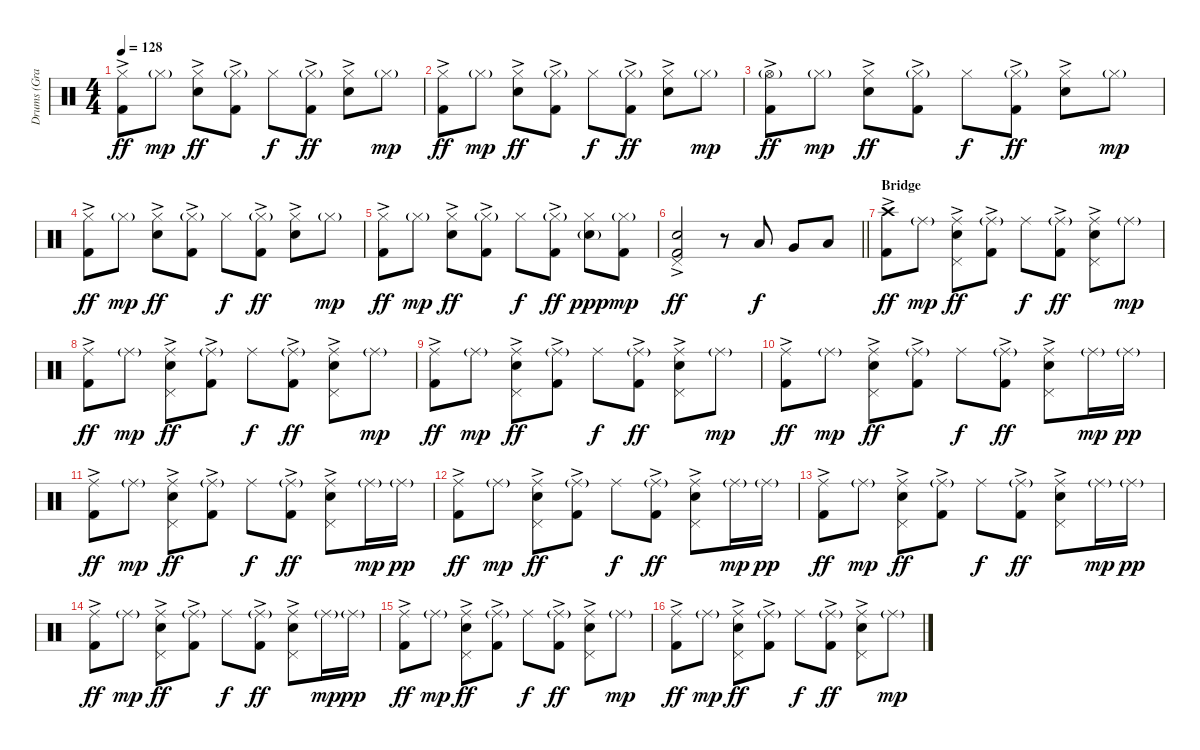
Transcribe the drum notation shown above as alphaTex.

\track ("Drums (Graham)" "Drums (Gra") {instrument percussion}
\staff {score}
\articulation defaults
\ts (4 4)
\tempo 128
\clef neutral
\ks c
("Hi-Hat (closed)" "Kick (hit) 2"{ac}).8{dy ff} "Hi-Hat (closed)"{g}.8{dy mp} ("Hi-Hat (closed)" "Snare (hit) 2"{ac}).8{dy ff} ("Hi-Hat (closed)"{g} "Kick (hit) 2"{ac}).8 "Hi-Hat (closed)".8{dy f} ("Hi-Hat (closed)"{g} "Kick (hit) 2"{ac}).8{dy ff} ("Hi-Hat (closed)" "Snare (hit) 2"{ac}).8 "Hi-Hat (closed)"{g}.8{dy mp} |
("Hi-Hat (closed)" "Kick (hit) 2"{ac}).8{dy ff} "Hi-Hat (closed)"{g}.8{dy mp} ("Hi-Hat (closed)" "Snare (hit) 2"{ac}).8{dy ff} ("Hi-Hat (closed)"{g} "Kick (hit) 2"{ac}).8 "Hi-Hat (closed)".8{dy f} ("Hi-Hat (closed)"{g} "Kick (hit) 2"{ac}).8{dy ff} ("Hi-Hat (closed)" "Snare (hit) 2"{ac}).8 "Hi-Hat (closed)"{g}.8{dy mp} |
("Hi-Hat (open)"{g} "Kick (hit) 2"{ac}).8{dy ff} "Hi-Hat (closed)"{g}.8{dy mp} ("Hi-Hat (closed)" "Snare (hit) 2"{ac}).8{dy ff} ("Hi-Hat (closed)"{g} "Kick (hit) 2"{ac}).8 "Hi-Hat (closed)".8{dy f} ("Hi-Hat (closed)"{g} "Kick (hit) 2"{ac}).8{dy ff} ("Hi-Hat (closed)" "Snare (hit) 2"{ac}).8 "Hi-Hat (closed)"{g}.8{dy mp} |
("Hi-Hat (closed)" "Kick (hit) 2"{ac}).8{dy ff} "Hi-Hat (closed)"{g}.8{dy mp} ("Hi-Hat (closed)" "Snare (hit) 2"{ac}).8{dy ff} ("Hi-Hat (closed)"{g} "Kick (hit) 2"{ac}).8 "Hi-Hat (closed)".8{dy f} ("Hi-Hat (closed)"{g} "Kick (hit) 2"{ac}).8{dy ff} ("Hi-Hat (closed)" "Snare (hit) 2"{ac}).8 "Hi-Hat (closed)"{g}.8{dy mp} |
("Hi-Hat (closed)" "Kick (hit) 2"{ac}).8{dy ff} "Hi-Hat (closed)"{g}.8{dy mp} ("Hi-Hat (closed)" "Snare (hit) 2"{ac}).8{dy ff} ("Hi-Hat (closed)"{g} "Kick (hit) 2"{ac}).8 "Hi-Hat (closed)".8{dy f} ("Hi-Hat (closed)"{g} "Kick (hit) 2"{ac}).8{dy ff} ("Hi-Hat (closed)" "Snare (hit) 2"{g}).8{dy ppp} ("Hi-Hat (closed)"{g} "Kick (hit) 2").8{dy mp} |
\barLineRight lightlight
("Pedal Hi-Hat (hit)" "Snare (hit) 2" "Kick (hit) 2"{ac}).2{dy ff} r.8 "Low Tom (hit)".8{dy f} "Very Low Tom (hit)".8 "Low Floor Tom (hit)".8 |
\section ("" "Bridge")
("Crash high (hit)" "Kick (hit) 2"{ac}).8{dy ff} "Ride (middle)"{g}.8{dy mp} ("Ride (middle)" "Pedal Hi-Hat (hit)" "Snare (hit) 2"{ac}).8{dy ff} ("Ride (middle)"{g} "Kick (hit) 2"{ac}).8 "Ride (middle)".8{dy f} ("Ride (middle)"{g} "Kick (hit) 2"{ac}).8{dy ff} ("Ride (middle)" "Pedal Hi-Hat (hit)" "Snare (hit) 2"{ac}).8 "Ride (middle)"{g}.8{dy mp} |
("Ride (middle)" "Kick (hit) 2"{ac}).8{dy ff} "Ride (middle)"{g}.8{dy mp} ("Ride (middle)" "Pedal Hi-Hat (hit)" "Snare (hit) 2"{ac}).8{dy ff} ("Ride (middle)"{g} "Kick (hit) 2"{ac}).8 "Ride (middle)".8{dy f} ("Ride (middle)"{g} "Kick (hit) 2"{ac}).8{dy ff} ("Ride (middle)" "Pedal Hi-Hat (hit)" "Snare (hit) 2"{ac}).8 "Ride (middle)"{g}.8{dy mp} |
("Ride (middle)" "Kick (hit) 2"{ac}).8{dy ff} "Ride (middle)"{g}.8{dy mp} ("Ride (middle)" "Pedal Hi-Hat (hit)" "Snare (hit) 2"{ac}).8{dy ff} ("Ride (middle)"{g} "Kick (hit) 2"{ac}).8 "Ride (middle)".8{dy f} ("Ride (middle)"{g} "Kick (hit) 2"{ac}).8{dy ff} ("Ride (middle)" "Pedal Hi-Hat (hit)" "Snare (hit) 2"{ac}).8 "Ride (middle)"{g}.8{dy mp} |
("Ride (middle)" "Kick (hit) 2"{ac}).8{dy ff} "Ride (middle)"{g}.8{dy mp} ("Ride (middle)" "Pedal Hi-Hat (hit)" "Snare (hit) 2"{ac}).8{dy ff} ("Ride (middle)"{g} "Kick (hit) 2"{ac}).8 "Ride (middle)".8{dy f} ("Ride (middle)"{g} "Kick (hit) 2"{ac}).8{dy ff} ("Ride (middle)" "Pedal Hi-Hat (hit)" "Snare (hit) 2"{ac}).8 "Ride (middle)"{g}.16{dy mp} "Ride (middle)"{g}.16{dy pp} |
("Ride (middle)" "Kick (hit) 2"{ac}).8{dy ff} "Ride (middle)"{g}.8{dy mp} ("Ride (middle)" "Pedal Hi-Hat (hit)" "Snare (hit) 2"{ac}).8{dy ff} ("Ride (middle)"{g} "Kick (hit) 2"{ac}).8 "Ride (middle)".8{dy f} ("Ride (middle)"{g} "Kick (hit) 2"{ac}).8{dy ff} ("Ride (middle)" "Pedal Hi-Hat (hit)" "Snare (hit) 2"{ac}).8 "Ride (middle)"{g}.16{dy mp} "Ride (middle)"{g}.16{dy pp} |
("Ride (middle)" "Kick (hit) 2"{ac}).8{dy ff} "Ride (middle)"{g}.8{dy mp} ("Ride (middle)" "Pedal Hi-Hat (hit)" "Snare (hit) 2"{ac}).8{dy ff} ("Ride (middle)"{g} "Kick (hit) 2"{ac}).8 "Ride (middle)".8{dy f} ("Ride (middle)"{g} "Kick (hit) 2"{ac}).8{dy ff} ("Ride (middle)" "Pedal Hi-Hat (hit)" "Snare (hit) 2"{ac}).8 "Ride (middle)"{g}.16{dy mp} "Ride (middle)"{g}.16{dy pp} |
("Ride (middle)" "Kick (hit) 2"{ac}).8{dy ff} "Ride (middle)"{g}.8{dy mp} ("Ride (middle)" "Pedal Hi-Hat (hit)" "Snare (hit) 2"{ac}).8{dy ff} ("Ride (middle)"{g} "Kick (hit) 2"{ac}).8 "Ride (middle)".8{dy f} ("Ride (middle)"{g} "Kick (hit) 2"{ac}).8{dy ff} ("Ride (middle)" "Pedal Hi-Hat (hit)" "Snare (hit) 2"{ac}).8 "Ride (middle)"{g}.16{dy mp} "Ride (middle)"{g}.16{dy pp} |
("Ride (middle)" "Kick (hit) 2"{ac}).8{dy ff} "Ride (middle)"{g}.8{dy mp} ("Ride (middle)" "Pedal Hi-Hat (hit)" "Snare (hit) 2"{ac}).8{dy ff} ("Ride (middle)"{g} "Kick (hit) 2"{ac}).8 "Ride (middle)".8{dy f} ("Ride (middle)"{g} "Kick (hit) 2"{ac}).8{dy ff} ("Ride (middle)" "Pedal Hi-Hat (hit)" "Snare (hit) 2"{ac}).8 "Ride (middle)"{g}.16{dy mp} "Ride (middle)"{g}.16{dy pp} |
("Ride (middle)" "Kick (hit) 2"{ac}).8{dy ff} "Ride (middle)"{g}.8{dy mp} ("Ride (middle)" "Pedal Hi-Hat (hit)" "Snare (hit) 2"{ac}).8{dy ff} ("Ride (middle)"{g} "Kick (hit) 2"{ac}).8 "Ride (middle)".8{dy f} ("Ride (middle)"{g} "Kick (hit) 2"{ac}).8{dy ff} ("Ride (middle)" "Pedal Hi-Hat (hit)" "Snare (hit) 2"{ac}).8 "Ride (middle)"{g}.8{dy mp} |
("Ride (middle)" "Kick (hit) 2"{ac}).8{dy ff} "Ride (middle)"{g}.8{dy mp} ("Ride (middle)" "Pedal Hi-Hat (hit)" "Snare (hit) 2"{ac}).8{dy ff} ("Ride (middle)"{g} "Kick (hit) 2"{ac}).8 "Ride (middle)".8{dy f} ("Ride (middle)"{g} "Kick (hit) 2"{ac}).8{dy ff} ("Ride (middle)" "Pedal Hi-Hat (hit)" "Snare (hit) 2"{ac}).8 "Ride (middle)"{g}.8{dy mp}
